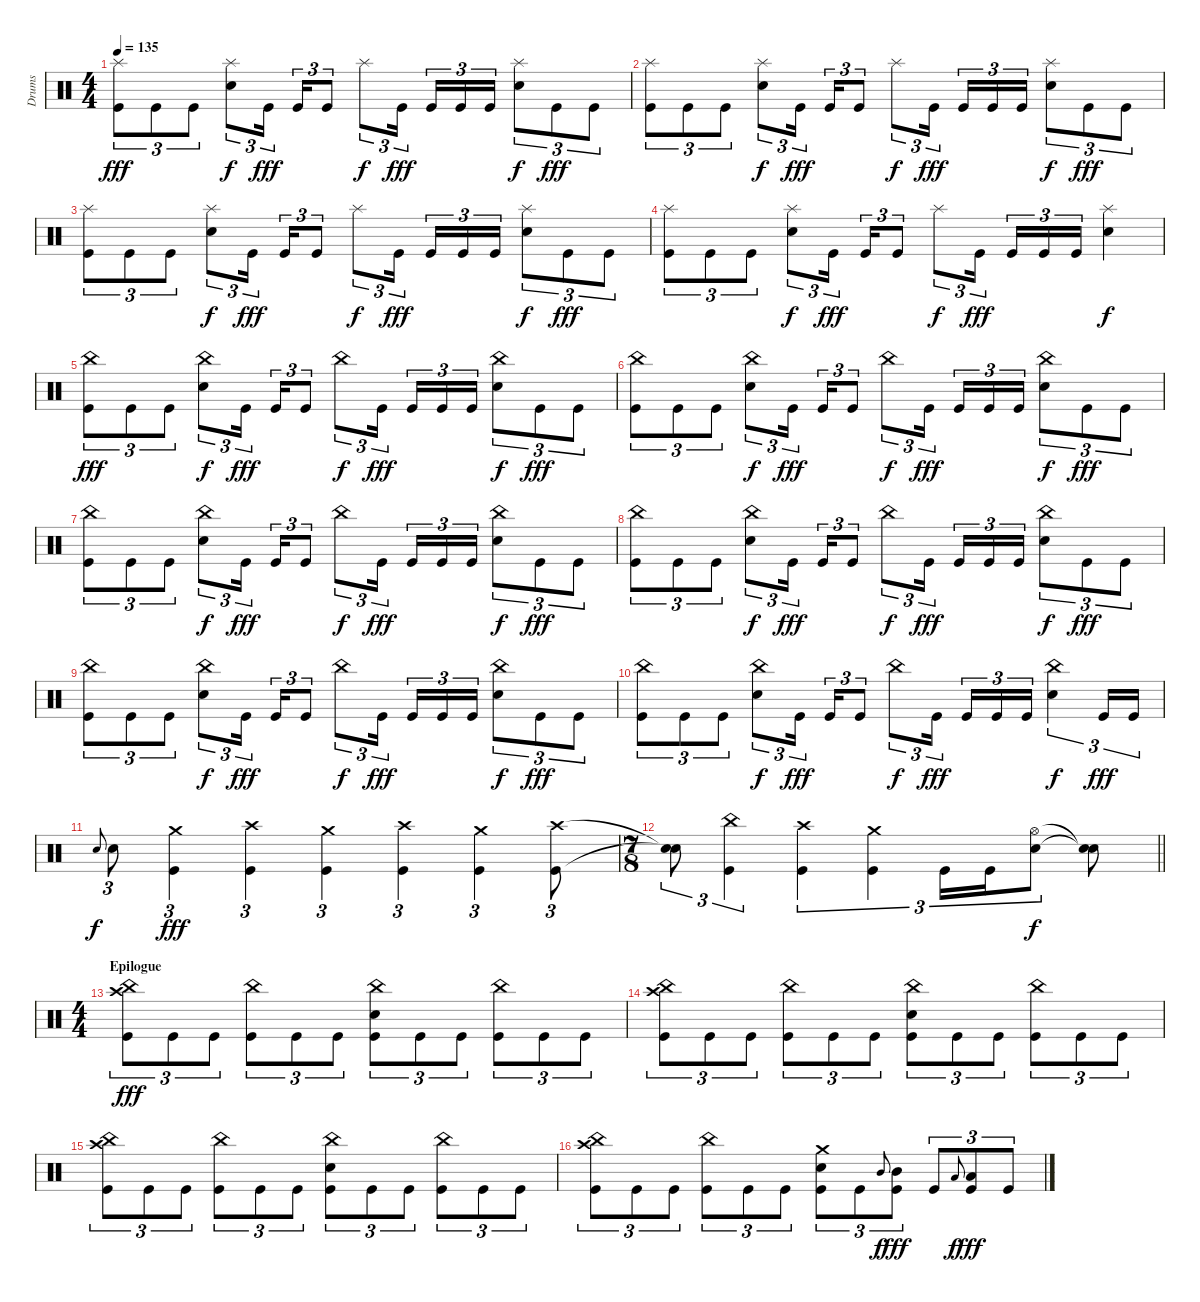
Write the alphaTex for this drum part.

\track ("Drums" "Drums") {instrument percussion}
\staff {score}
\articulation defaults
\ts (4 4)
\tempo 135
\clef neutral
\ks c
("Splash (hit)" "Kick (hit)").8{tu (3 2) dy fff} "Kick (hit)".8{tu (3 2)} "Kick (hit)".8{tu (3 2)} ("Splash (hit)" "Electric Snare (hit)").8{tu (3 2) dy f} "Kick (hit)".16{tu (3 2) dy fff beam splitsecondary} "Kick (hit)".16{tu (3 2)} "Kick (hit)".8{tu (3 2)} "Splash (hit)".8{tu (3 2) dy f} "Kick (hit)".16{tu (3 2) dy fff beam splitsecondary} "Kick (hit)".16{tu (3 2)} "Kick (hit)".16{tu (3 2)} "Kick (hit)".16{tu (3 2)} ("Splash (hit)" "Electric Snare (hit)").8{tu (3 2) dy f} "Kick (hit)".8{tu (3 2) dy fff} "Kick (hit)".8{tu (3 2)} |
("Splash (hit)" "Kick (hit)").8{tu (3 2)} "Kick (hit)".8{tu (3 2)} "Kick (hit)".8{tu (3 2)} ("Splash (hit)" "Electric Snare (hit)").8{tu (3 2) dy f} "Kick (hit)".16{tu (3 2) dy fff beam splitsecondary} "Kick (hit)".16{tu (3 2)} "Kick (hit)".8{tu (3 2)} "Splash (hit)".8{tu (3 2) dy f} "Kick (hit)".16{tu (3 2) dy fff beam splitsecondary} "Kick (hit)".16{tu (3 2)} "Kick (hit)".16{tu (3 2)} "Kick (hit)".16{tu (3 2)} ("Splash (hit)" "Electric Snare (hit)").8{tu (3 2) dy f} "Kick (hit)".8{tu (3 2) dy fff} "Kick (hit)".8{tu (3 2)} |
("Splash (hit)" "Kick (hit)").8{tu (3 2)} "Kick (hit)".8{tu (3 2)} "Kick (hit)".8{tu (3 2)} ("Splash (hit)" "Electric Snare (hit)").8{tu (3 2) dy f} "Kick (hit)".16{tu (3 2) dy fff beam splitsecondary} "Kick (hit)".16{tu (3 2)} "Kick (hit)".8{tu (3 2)} "Splash (hit)".8{tu (3 2) dy f} "Kick (hit)".16{tu (3 2) dy fff beam splitsecondary} "Kick (hit)".16{tu (3 2)} "Kick (hit)".16{tu (3 2)} "Kick (hit)".16{tu (3 2)} ("Splash (hit)" "Electric Snare (hit)").8{tu (3 2) dy f} "Kick (hit)".8{tu (3 2) dy fff} "Kick (hit)".8{tu (3 2)} |
("Splash (hit)" "Kick (hit)").8{tu (3 2)} "Kick (hit)".8{tu (3 2)} "Kick (hit)".8{tu (3 2)} ("Splash (hit)" "Electric Snare (hit)").8{tu (3 2) dy f} "Kick (hit)".16{tu (3 2) dy fff beam splitsecondary} "Kick (hit)".16{tu (3 2)} "Kick (hit)".8{tu (3 2)} "Splash (hit)".8{tu (3 2) dy f} "Kick (hit)".16{tu (3 2) dy fff beam splitsecondary} "Kick (hit)".16{tu (3 2)} "Kick (hit)".16{tu (3 2)} "Kick (hit)".16{tu (3 2)} ("Splash (hit)" "Electric Snare (hit)").4{dy f} |
("China (hit)" "Kick (hit)").8{tu (3 2) dy fff} "Kick (hit)".8{tu (3 2)} "Kick (hit)".8{tu (3 2)} ("China (hit)" "Electric Snare (hit)").8{tu (3 2) dy f} "Kick (hit)".16{tu (3 2) dy fff beam splitsecondary} "Kick (hit)".16{tu (3 2)} "Kick (hit)".8{tu (3 2)} "China (hit)".8{tu (3 2) dy f} "Kick (hit)".16{tu (3 2) dy fff beam splitsecondary} "Kick (hit)".16{tu (3 2)} "Kick (hit)".16{tu (3 2)} "Kick (hit)".16{tu (3 2)} ("China (hit)" "Electric Snare (hit)").8{tu (3 2) dy f} "Kick (hit)".8{tu (3 2) dy fff} "Kick (hit)".8{tu (3 2)} |
("China (hit)" "Kick (hit)").8{tu (3 2)} "Kick (hit)".8{tu (3 2)} "Kick (hit)".8{tu (3 2)} ("China (hit)" "Electric Snare (hit)").8{tu (3 2) dy f} "Kick (hit)".16{tu (3 2) dy fff beam splitsecondary} "Kick (hit)".16{tu (3 2)} "Kick (hit)".8{tu (3 2)} "China (hit)".8{tu (3 2) dy f} "Kick (hit)".16{tu (3 2) dy fff beam splitsecondary} "Kick (hit)".16{tu (3 2)} "Kick (hit)".16{tu (3 2)} "Kick (hit)".16{tu (3 2)} ("China (hit)" "Electric Snare (hit)").8{tu (3 2) dy f} "Kick (hit)".8{tu (3 2) dy fff} "Kick (hit)".8{tu (3 2)} |
("China (hit)" "Kick (hit)").8{tu (3 2)} "Kick (hit)".8{tu (3 2)} "Kick (hit)".8{tu (3 2)} ("China (hit)" "Electric Snare (hit)").8{tu (3 2) dy f} "Kick (hit)".16{tu (3 2) dy fff beam splitsecondary} "Kick (hit)".16{tu (3 2)} "Kick (hit)".8{tu (3 2)} "China (hit)".8{tu (3 2) dy f} "Kick (hit)".16{tu (3 2) dy fff beam splitsecondary} "Kick (hit)".16{tu (3 2)} "Kick (hit)".16{tu (3 2)} "Kick (hit)".16{tu (3 2)} ("China (hit)" "Electric Snare (hit)").8{tu (3 2) dy f} "Kick (hit)".8{tu (3 2) dy fff} "Kick (hit)".8{tu (3 2)} |
("China (hit)" "Kick (hit)").8{tu (3 2)} "Kick (hit)".8{tu (3 2)} "Kick (hit)".8{tu (3 2)} ("China (hit)" "Electric Snare (hit)").8{tu (3 2) dy f} "Kick (hit)".16{tu (3 2) dy fff beam splitsecondary} "Kick (hit)".16{tu (3 2)} "Kick (hit)".8{tu (3 2)} "China (hit)".8{tu (3 2) dy f} "Kick (hit)".16{tu (3 2) dy fff beam splitsecondary} "Kick (hit)".16{tu (3 2)} "Kick (hit)".16{tu (3 2)} "Kick (hit)".16{tu (3 2)} ("China (hit)" "Electric Snare (hit)").8{tu (3 2) dy f} "Kick (hit)".8{tu (3 2) dy fff} "Kick (hit)".8{tu (3 2)} |
("China (hit)" "Kick (hit)").8{tu (3 2)} "Kick (hit)".8{tu (3 2)} "Kick (hit)".8{tu (3 2)} ("China (hit)" "Electric Snare (hit)").8{tu (3 2) dy f} "Kick (hit)".16{tu (3 2) dy fff beam splitsecondary} "Kick (hit)".16{tu (3 2)} "Kick (hit)".8{tu (3 2)} "China (hit)".8{tu (3 2) dy f} "Kick (hit)".16{tu (3 2) dy fff beam splitsecondary} "Kick (hit)".16{tu (3 2)} "Kick (hit)".16{tu (3 2)} "Kick (hit)".16{tu (3 2)} ("China (hit)" "Electric Snare (hit)").8{tu (3 2) dy f} "Kick (hit)".8{tu (3 2) dy fff} "Kick (hit)".8{tu (3 2)} |
("China (hit)" "Kick (hit)").8{tu (3 2)} "Kick (hit)".8{tu (3 2)} "Kick (hit)".8{tu (3 2)} ("China (hit)" "Electric Snare (hit)").8{tu (3 2) dy f} "Kick (hit)".16{tu (3 2) dy fff beam splitsecondary} "Kick (hit)".16{tu (3 2)} "Kick (hit)".8{tu (3 2)} "China (hit)".8{tu (3 2) dy f} "Kick (hit)".16{tu (3 2) dy fff beam splitsecondary} "Kick (hit)".16{tu (3 2)} "Kick (hit)".16{tu (3 2)} "Kick (hit)".16{tu (3 2)} ("China (hit)" "Electric Snare (hit)").4{tu (3 2) dy f} "Kick (hit)".16{tu (3 2) dy fff} "Kick (hit)".16{tu (3 2)} |
"Electric Snare (hit)".8{gr onbeat dy f} "Electric Snare (hit)".8{tu (3 2)} ("Crash medium (hit)" "Kick (hit)").4{tu (3 2) dy fff} ("Crash high (hit)" "Kick (hit)").4{tu (3 2)} ("Crash medium (hit)" "Kick (hit)").4{tu (3 2)} ("Crash high (hit)" "Kick (hit)").4{tu (3 2)} ("Crash medium (hit)" "Kick (hit)").4{tu (3 2)} ("Crash high (hit)" "Kick (hit)").8{tu (3 2)} |
\ts (7 8)
\barLineRight lightlight
("Snare (hit)"{t} "Snare (hit)"{t}).8{tu (3 2)} ("China (hit)" "Kick (hit)").4{tu (3 2)} ("Crash high (hit)" "Kick (hit)").4{tu (3 2)} ("Crash medium (hit)" "Kick (hit)").4{tu (3 2)} "Kick (hit)".16{tu (3 2)} "Kick (hit)".16{tu (3 2)} ("Hi-Hat (open)" "Electric Snare (hit)").8{tu (3 2) dy f} ("Snare (hit)"{t} "Snare (hit)"{t}).8 |
\ts (4 4)
\section ("" "Epilogue")
("Crash high (hit)" "China (hit)" "Kick (hit)").8{tu (3 2) dy fff} "Kick (hit)".8{tu (3 2)} "Kick (hit)".8{tu (3 2)} ("China (hit)" "Kick (hit)").8{tu (3 2)} "Kick (hit)".8{tu (3 2)} "Kick (hit)".8{tu (3 2)} ("China (hit)" "Electric Snare (hit)" "Kick (hit)").8{tu (3 2)} "Kick (hit)".8{tu (3 2)} "Kick (hit)".8{tu (3 2)} ("China (hit)" "Kick (hit)").8{tu (3 2)} "Kick (hit)".8{tu (3 2)} "Kick (hit)".8{tu (3 2)} |
("Crash high (hit)" "China (hit)" "Kick (hit)").8{tu (3 2)} "Kick (hit)".8{tu (3 2)} "Kick (hit)".8{tu (3 2)} ("China (hit)" "Kick (hit)").8{tu (3 2)} "Kick (hit)".8{tu (3 2)} "Kick (hit)".8{tu (3 2)} ("China (hit)" "Electric Snare (hit)" "Kick (hit)").8{tu (3 2)} "Kick (hit)".8{tu (3 2)} "Kick (hit)".8{tu (3 2)} ("China (hit)" "Kick (hit)").8{tu (3 2)} "Kick (hit)".8{tu (3 2)} "Kick (hit)".8{tu (3 2)} |
("Crash high (hit)" "China (hit)" "Kick (hit)").8{tu (3 2)} "Kick (hit)".8{tu (3 2)} "Kick (hit)".8{tu (3 2)} ("China (hit)" "Kick (hit)").8{tu (3 2)} "Kick (hit)".8{tu (3 2)} "Kick (hit)".8{tu (3 2)} ("China (hit)" "Electric Snare (hit)" "Kick (hit)").8{tu (3 2)} "Kick (hit)".8{tu (3 2)} "Kick (hit)".8{tu (3 2)} ("China (hit)" "Kick (hit)").8{tu (3 2)} "Kick (hit)".8{tu (3 2)} "Kick (hit)".8{tu (3 2)} |
("Crash high (hit)" "China (hit)" "Kick (hit)").8{tu (3 2)} "Kick (hit)".8{tu (3 2)} "Kick (hit)".8{tu (3 2)} ("China (hit)" "Kick (hit)").8{tu (3 2)} "Kick (hit)".8{tu (3 2)} "Kick (hit)".8{tu (3 2)} ("Crash medium (hit)" "Electric Snare (hit)" "Kick (hit)").8{tu (3 2)} "Kick (hit)".8{tu (3 2)} "Mid Tom (hit)".8{gr onbeat dy f} ("Mid Tom (hit)" "Kick (hit)").8{tu (3 2) dy fff} "Kick (hit)".8{tu (3 2)} "Low Tom (hit)".8{gr onbeat dy f} ("Low Tom (hit)" "Kick (hit)").8{tu (3 2) dy fff} "Kick (hit)".8{tu (3 2)}
